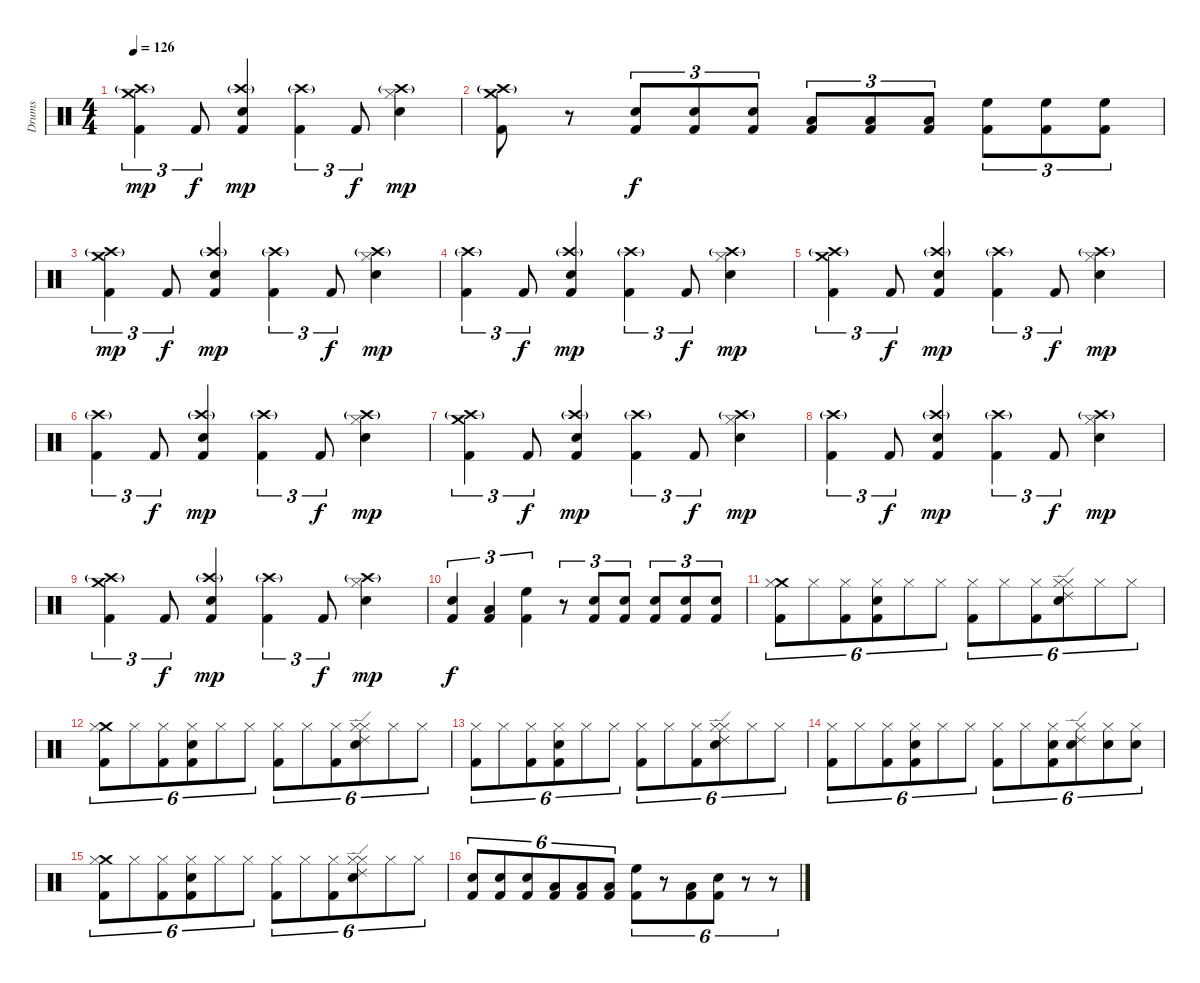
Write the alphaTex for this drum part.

\track ("Drums" "Drums") {instrument percussion}
\staff {score}
\articulation defaults
\ts (4 4)
\tempo 126
\clef neutral
\ks c
("Kick (hit) 2" "Crash medium (hit)" "Crash high (hit)"{g}).4{tu (3 2) dy mp} "Kick (hit) 2".8{tu (3 2) dy f} ("Kick (hit) 2" "Snare (hit) 2" "Crash high (hit)"{g}).4{dy mp} ("Kick (hit) 2" "Crash high (hit)"{g}).4{tu (3 2)} "Kick (hit) 2".8{tu (3 2) dy f} ("Hi-Hat (closed)" "Snare (hit) 2" "Crash high (hit)"{g}).4{dy mp} |
("Kick (hit) 2" "Crash medium (hit)" "Crash high (hit)"{g}).8 r.8 ("Kick (hit) 2" "Snare (hit) 2").8{tu (3 2) dy f} ("Kick (hit) 2" "Snare (hit) 2").8{tu (3 2)} ("Kick (hit) 2" "Snare (hit) 2").8{tu (3 2)} ("Kick (hit) 2" "Low Tom (hit)").8{tu (3 2)} ("Kick (hit) 2" "Low Tom (hit)").8{tu (3 2)} ("Kick (hit) 2" "Low Tom (hit)").8{tu (3 2)} ("Kick (hit) 2" "High Floor Tom (hit)").8{tu (3 2)} ("Kick (hit) 2" "High Floor Tom (hit)").8{tu (3 2)} ("Kick (hit) 2" "High Floor Tom (hit)").8{tu (3 2)} |
("Kick (hit) 2" "Crash medium (hit)" "Crash high (hit)"{g}).4{tu (3 2) dy mp volume 16} "Kick (hit) 2".8{tu (3 2) dy f} ("Kick (hit) 2" "Snare (hit) 2" "Crash high (hit)"{g}).4{dy mp} ("Kick (hit) 2" "Crash high (hit)"{g}).4{tu (3 2)} "Kick (hit) 2".8{tu (3 2) dy f} ("Hi-Hat (closed)" "Snare (hit) 2" "Crash high (hit)"{g}).4{dy mp} |
("Kick (hit) 2" "Crash high (hit)"{g}).4{tu (3 2)} "Kick (hit) 2".8{tu (3 2) dy f} ("Kick (hit) 2" "Snare (hit) 2" "Crash high (hit)"{g}).4{dy mp} ("Kick (hit) 2" "Crash high (hit)"{g}).4{tu (3 2)} "Kick (hit) 2".8{tu (3 2) dy f} ("Hi-Hat (closed)" "Snare (hit) 2" "Crash high (hit)"{g}).4{dy mp} |
("Kick (hit) 2" "Crash medium (hit)" "Crash high (hit)"{g}).4{tu (3 2)} "Kick (hit) 2".8{tu (3 2) dy f} ("Kick (hit) 2" "Snare (hit) 2" "Crash high (hit)"{g}).4{dy mp} ("Kick (hit) 2" "Crash high (hit)"{g}).4{tu (3 2)} "Kick (hit) 2".8{tu (3 2) dy f} ("Hi-Hat (closed)" "Snare (hit) 2" "Crash high (hit)"{g}).4{dy mp} |
("Kick (hit) 2" "Crash high (hit)"{g}).4{tu (3 2)} "Kick (hit) 2".8{tu (3 2) dy f} ("Kick (hit) 2" "Snare (hit) 2" "Crash high (hit)"{g}).4{dy mp} ("Kick (hit) 2" "Crash high (hit)"{g}).4{tu (3 2)} "Kick (hit) 2".8{tu (3 2) dy f} ("Hi-Hat (closed)" "Snare (hit) 2" "Crash high (hit)"{g}).4{dy mp} |
("Kick (hit) 2" "Crash medium (hit)" "Crash high (hit)"{g}).4{tu (3 2) volume 16} "Kick (hit) 2".8{tu (3 2) dy f} ("Kick (hit) 2" "Snare (hit) 2" "Crash high (hit)"{g}).4{dy mp} ("Kick (hit) 2" "Crash high (hit)"{g}).4{tu (3 2)} "Kick (hit) 2".8{tu (3 2) dy f} ("Hi-Hat (closed)" "Snare (hit) 2" "Crash high (hit)"{g}).4{dy mp} |
("Kick (hit) 2" "Crash high (hit)"{g}).4{tu (3 2)} "Kick (hit) 2".8{tu (3 2) dy f} ("Kick (hit) 2" "Snare (hit) 2" "Crash high (hit)"{g}).4{dy mp} ("Kick (hit) 2" "Crash high (hit)"{g}).4{tu (3 2)} "Kick (hit) 2".8{tu (3 2) dy f} ("Hi-Hat (closed)" "Snare (hit) 2" "Crash high (hit)"{g}).4{dy mp} |
("Kick (hit) 2" "Crash medium (hit)" "Crash high (hit)"{g}).4{tu (3 2)} "Kick (hit) 2".8{tu (3 2) dy f} ("Kick (hit) 2" "Snare (hit) 2" "Crash high (hit)"{g}).4{dy mp} ("Kick (hit) 2" "Crash high (hit)"{g}).4{tu (3 2)} "Kick (hit) 2".8{tu (3 2) dy f} ("Hi-Hat (closed)" "Snare (hit) 2" "Crash high (hit)"{g}).4{dy mp} |
("Kick (hit) 2" "Snare (hit) 2").4{tu (3 2) dy f} ("Kick (hit) 2" "Low Tom (hit)").4{tu (3 2)} ("Kick (hit) 2" "High Floor Tom (hit)").4{tu (3 2)} r.8{tu (3 2)} ("Kick (hit) 2" "Snare (hit) 2").8{tu (3 2)} ("Kick (hit) 2" "Snare (hit) 2").8{tu (3 2)} ("Kick (hit) 2" "Snare (hit) 2").8{tu (3 2)} ("Kick (hit) 2" "Snare (hit) 2").8{tu (3 2)} ("Kick (hit) 2" "Snare (hit) 2").8{tu (3 2)} |
("Kick (hit) 2" "Crash medium (hit)" "Hi-Hat (closed)").8{tu (6 4)} "Hi-Hat (closed)".8{tu (6 4)} ("Kick (hit) 2" "Hi-Hat (closed)").8{tu (6 4)} ("Kick (hit) 2" "Snare (hit) 2" "Hi-Hat (closed)").8{tu (6 4)} "Hi-Hat (closed)".8{tu (6 4)} "Hi-Hat (closed)".8{tu (6 4)} ("Kick (hit) 2" "Hi-Hat (closed)").8{tu (6 4)} "Hi-Hat (closed)".8{tu (6 4)} ("Kick (hit) 2" "Hi-Hat (closed)").8{tu (6 4)} ("Hi-Hat (closed)" "Snare (hit) 2" "Hi-Hat (closed)" "Ride (edge) 2").8{tu (6 4)} "Hi-Hat (closed)".8{tu (6 4)} "Hi-Hat (closed)".8{tu (6 4)} |
("Kick (hit) 2" "Crash medium (hit)" "Hi-Hat (closed)").8{tu (6 4)} "Hi-Hat (closed)".8{tu (6 4)} ("Kick (hit) 2" "Hi-Hat (closed)").8{tu (6 4)} ("Kick (hit) 2" "Snare (hit) 2" "Hi-Hat (closed)").8{tu (6 4)} "Hi-Hat (closed)".8{tu (6 4)} "Hi-Hat (closed)".8{tu (6 4)} ("Kick (hit) 2" "Hi-Hat (closed)").8{tu (6 4)} "Hi-Hat (closed)".8{tu (6 4)} ("Kick (hit) 2" "Hi-Hat (closed)").8{tu (6 4)} ("Hi-Hat (closed)" "Snare (hit) 2" "Hi-Hat (closed)" "Ride (edge) 2").8{tu (6 4)} "Hi-Hat (closed)".8{tu (6 4)} "Hi-Hat (closed)".8{tu (6 4)} |
("Kick (hit) 2" "Hi-Hat (closed)").8{tu (6 4)} "Hi-Hat (closed)".8{tu (6 4)} ("Kick (hit) 2" "Hi-Hat (closed)").8{tu (6 4)} ("Kick (hit) 2" "Snare (hit) 2" "Hi-Hat (closed)").8{tu (6 4)} "Hi-Hat (closed)".8{tu (6 4)} "Hi-Hat (closed)".8{tu (6 4)} ("Kick (hit) 2" "Hi-Hat (closed)").8{tu (6 4)} "Hi-Hat (closed)".8{tu (6 4)} ("Kick (hit) 2" "Hi-Hat (closed)").8{tu (6 4)} ("Hi-Hat (closed)" "Snare (hit) 2" "Hi-Hat (closed)" "Ride (edge) 2").8{tu (6 4)} "Hi-Hat (closed)".8{tu (6 4)} "Hi-Hat (closed)".8{tu (6 4)} |
("Kick (hit) 2" "Hi-Hat (closed)").8{tu (6 4)} "Hi-Hat (closed)".8{tu (6 4)} ("Kick (hit) 2" "Hi-Hat (closed)").8{tu (6 4)} ("Kick (hit) 2" "Snare (hit) 2" "Hi-Hat (closed)").8{tu (6 4)} "Hi-Hat (closed)".8{tu (6 4)} "Hi-Hat (closed)".8{tu (6 4)} ("Kick (hit) 2" "Hi-Hat (closed)").8{tu (6 4)} "Hi-Hat (closed)".8{tu (6 4)} ("Kick (hit) 2" "Snare (hit) 2" "Hi-Hat (closed)").8{tu (6 4)} ("Snare (hit) 2" "Hi-Hat (closed)" "Ride (edge) 2").8{tu (6 4)} ("Snare (hit) 2" "Hi-Hat (closed)").8{tu (6 4)} ("Snare (hit) 2" "Hi-Hat (closed)").8{tu (6 4)} |
("Kick (hit) 2" "Crash medium (hit)" "Hi-Hat (closed)").8{tu (6 4)} "Hi-Hat (closed)".8{tu (6 4)} ("Kick (hit) 2" "Hi-Hat (closed)").8{tu (6 4)} ("Kick (hit) 2" "Snare (hit) 2" "Hi-Hat (closed)").8{tu (6 4)} "Hi-Hat (closed)".8{tu (6 4)} "Hi-Hat (closed)".8{tu (6 4)} ("Kick (hit) 2" "Hi-Hat (closed)").8{tu (6 4)} "Hi-Hat (closed)".8{tu (6 4)} ("Kick (hit) 2" "Hi-Hat (closed)").8{tu (6 4)} ("Hi-Hat (closed)" "Snare (hit) 2" "Hi-Hat (closed)" "Ride (edge) 2").8{tu (6 4)} "Hi-Hat (closed)".8{tu (6 4)} "Hi-Hat (closed)".8{tu (6 4)} |
("Kick (hit) 2" "Snare (hit) 2").8{tu (6 4)} ("Kick (hit) 2" "Snare (hit) 2").8{tu (6 4)} ("Kick (hit) 2" "Snare (hit) 2").8{tu (6 4)} ("Kick (hit) 2" "Low Tom (hit)").8{tu (6 4)} ("Kick (hit) 2" "Low Tom (hit)").8{tu (6 4)} ("Kick (hit) 2" "Low Tom (hit)").8{tu (6 4)} ("Kick (hit) 2" "High Floor Tom (hit)").8{tu (6 4)} r.8{tu (6 4)} ("Kick (hit) 2" "Low Tom (hit)").8{tu (6 4)} ("Kick (hit) 2" "Snare (hit) 2").8{tu (6 4)} r.8{tu (6 4)} r.8{tu (6 4)}
